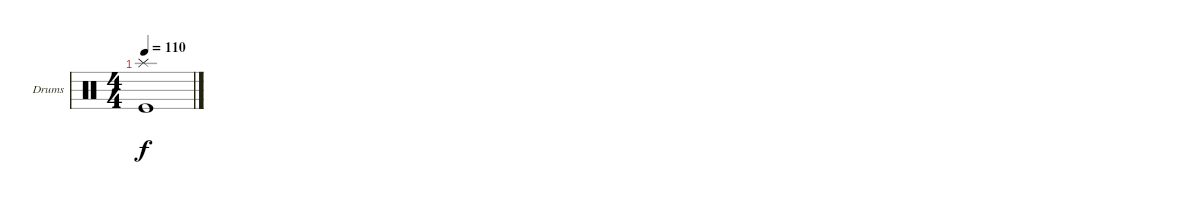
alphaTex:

\defaultSystemsLayout 4
\bracketExtendMode groupsimilarinstruments
\firstSystemTrackNameOrientation horizontal
\otherSystemsTrackNameOrientation horizontal
\track ("Drumkit" "Drums") {instrument percussion}
\staff {score}
\articulation defaults
\ts (4 4)
\tempo 110
\clef neutral
\ks c
("Splash (hit)" "Kick (hit)").1{dy f}
